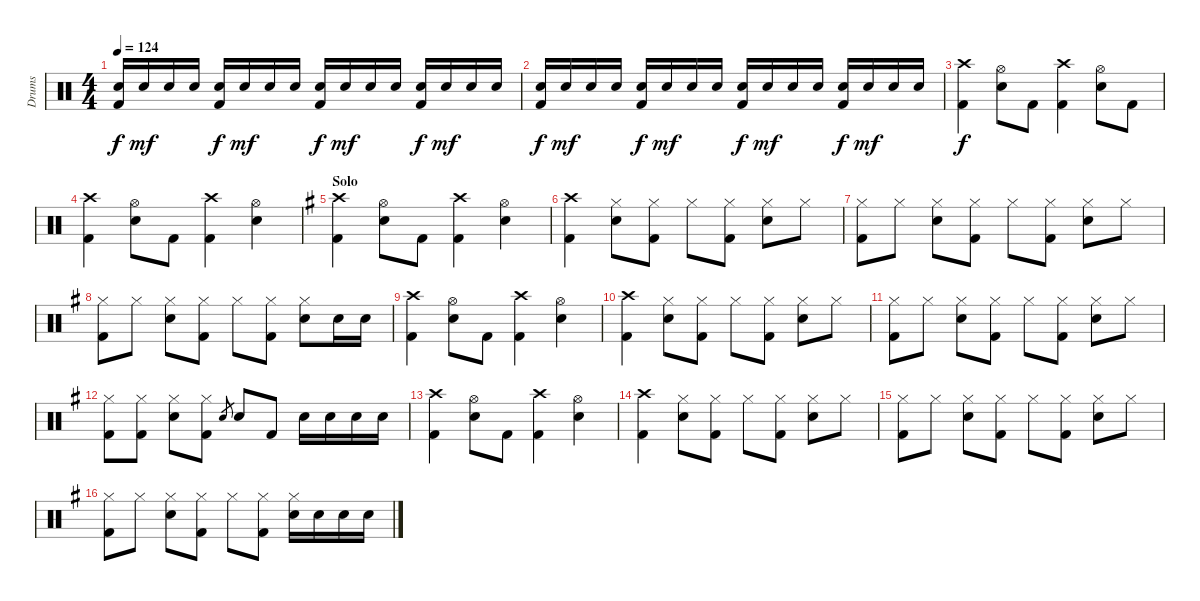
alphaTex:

\track ("Drums" "Drums") {instrument percussion}
\staff {score}
\articulation defaults
\ts (4 4)
\tempo 124
\clef neutral
\ks c
("Electric Snare (hit)" "Kick (hit) 2").16{dy f} "Electric Snare (hit)".16{dy mf} "Electric Snare (hit)".16 "Electric Snare (hit)".16 ("Electric Snare (hit)" "Kick (hit) 2").16{dy f} "Electric Snare (hit)".16{dy mf} "Electric Snare (hit)".16 "Electric Snare (hit)".16 ("Electric Snare (hit)" "Kick (hit) 2").16{dy f} "Electric Snare (hit)".16{dy mf} "Electric Snare (hit)".16 "Electric Snare (hit)".16 ("Electric Snare (hit)" "Kick (hit) 2").16{dy f} "Electric Snare (hit)".16{dy mf} "Electric Snare (hit)".16 "Electric Snare (hit)".16 |
("Electric Snare (hit)" "Kick (hit) 2").16{dy f} "Electric Snare (hit)".16{dy mf} "Electric Snare (hit)".16 "Electric Snare (hit)".16 ("Electric Snare (hit)" "Kick (hit) 2").16{dy f} "Electric Snare (hit)".16{dy mf} "Electric Snare (hit)".16 "Electric Snare (hit)".16 ("Electric Snare (hit)" "Kick (hit) 2").16{dy f} "Electric Snare (hit)".16{dy mf} "Electric Snare (hit)".16 "Electric Snare (hit)".16 ("Electric Snare (hit)" "Kick (hit) 2").16{dy f} "Electric Snare (hit)".16{dy mf} "Electric Snare (hit)".16 "Electric Snare (hit)".16 |
("Crash high (hit)" "Kick (hit) 2").4{dy f} ("Hi-Hat (open)" "Electric Snare (hit)").8 "Kick (hit) 2".8 ("Crash high (hit)" "Kick (hit) 2").4 ("Hi-Hat (open)" "Electric Snare (hit)").8 "Kick (hit) 2".8 |
("Crash high (hit)" "Kick (hit) 2").4 ("Hi-Hat (open)" "Electric Snare (hit)").8 "Kick (hit) 2".8 ("Crash high (hit)" "Kick (hit) 2").4 ("Hi-Hat (open)" "Electric Snare (hit)").4 |
\section ("" "Solo")
\ks eminor
("Crash high (hit)" "Kick (hit) 2").4 ("Hi-Hat (open)" "Electric Snare (hit)").8 "Kick (hit) 2".8 ("Crash high (hit)" "Kick (hit) 2").4 ("Hi-Hat (open)" "Electric Snare (hit)").4 |
("Crash high (hit)" "Kick (hit) 2").4 ("Hi-Hat (closed)" "Electric Snare (hit)").8 ("Hi-Hat (closed)" "Kick (hit) 2").8 "Hi-Hat (closed)".8 ("Hi-Hat (closed)" "Kick (hit) 2").8 ("Hi-Hat (closed)" "Electric Snare (hit)").8 "Hi-Hat (closed)".8 |
("Hi-Hat (closed)" "Kick (hit) 2").8 "Hi-Hat (closed)".8 ("Hi-Hat (closed)" "Electric Snare (hit)").8 ("Hi-Hat (closed)" "Kick (hit) 2").8 "Hi-Hat (closed)".8 ("Hi-Hat (closed)" "Kick (hit) 2").8 ("Hi-Hat (closed)" "Electric Snare (hit)").8 "Hi-Hat (closed)".8 |
("Hi-Hat (closed)" "Kick (hit) 2").8 "Hi-Hat (closed)".8 ("Hi-Hat (closed)" "Electric Snare (hit)").8 ("Hi-Hat (closed)" "Kick (hit) 2").8 "Hi-Hat (closed)".8 ("Hi-Hat (closed)" "Kick (hit) 2").8 ("Hi-Hat (closed)" "Electric Snare (hit)").8 "Electric Snare (hit)".16 "Electric Snare (hit)".16 |
("Crash high (hit)" "Kick (hit) 2").4 ("Hi-Hat (open)" "Electric Snare (hit)").8 "Kick (hit) 2".8 ("Crash high (hit)" "Kick (hit) 2").4 ("Hi-Hat (open)" "Electric Snare (hit)").4 |
("Crash high (hit)" "Kick (hit) 2").4 ("Hi-Hat (closed)" "Electric Snare (hit)").8 ("Hi-Hat (closed)" "Kick (hit) 2").8 "Hi-Hat (closed)".8 ("Hi-Hat (closed)" "Kick (hit) 2").8 ("Hi-Hat (closed)" "Electric Snare (hit)").8 "Hi-Hat (closed)".8 |
("Hi-Hat (closed)" "Kick (hit) 2").8 "Hi-Hat (closed)".8 ("Hi-Hat (closed)" "Electric Snare (hit)").8 ("Hi-Hat (closed)" "Kick (hit) 2").8 "Hi-Hat (closed)".8 ("Hi-Hat (closed)" "Kick (hit) 2").8 ("Hi-Hat (closed)" "Electric Snare (hit)").8 "Hi-Hat (closed)".8 |
("Hi-Hat (closed)" "Kick (hit) 2").8 ("Hi-Hat (closed)" "Kick (hit) 2").8 ("Hi-Hat (closed)" "Electric Snare (hit)").8 ("Hi-Hat (closed)" "Kick (hit) 2").8 "Electric Snare (hit)".8{gr} "Electric Snare (hit)".8 "Kick (hit) 2".8 "Electric Snare (hit)".16 "Electric Snare (hit)".16 "Electric Snare (hit)".16 "Electric Snare (hit)".16 |
("Crash high (hit)" "Kick (hit) 2").4 ("Hi-Hat (open)" "Electric Snare (hit)").8 "Kick (hit) 2".8 ("Crash high (hit)" "Kick (hit) 2").4 ("Hi-Hat (open)" "Electric Snare (hit)").4 |
("Crash high (hit)" "Kick (hit) 2").4 ("Hi-Hat (closed)" "Electric Snare (hit)").8 ("Hi-Hat (closed)" "Kick (hit) 2").8 "Hi-Hat (closed)".8 ("Hi-Hat (closed)" "Kick (hit) 2").8 ("Hi-Hat (closed)" "Electric Snare (hit)").8 "Hi-Hat (closed)".8 |
("Hi-Hat (closed)" "Kick (hit) 2").8 "Hi-Hat (closed)".8 ("Hi-Hat (closed)" "Electric Snare (hit)").8 ("Hi-Hat (closed)" "Kick (hit) 2").8 "Hi-Hat (closed)".8 ("Hi-Hat (closed)" "Kick (hit) 2").8 ("Hi-Hat (closed)" "Electric Snare (hit)").8 "Hi-Hat (closed)".8 |
("Hi-Hat (closed)" "Kick (hit) 2").8 "Hi-Hat (closed)".8 ("Hi-Hat (closed)" "Electric Snare (hit)").8 ("Hi-Hat (closed)" "Kick (hit) 2").8 "Hi-Hat (closed)".8 ("Hi-Hat (closed)" "Kick (hit) 2").8 ("Hi-Hat (closed)" "Electric Snare (hit)").16 "Electric Snare (hit)".16 "Electric Snare (hit)".16 "Electric Snare (hit)".16
